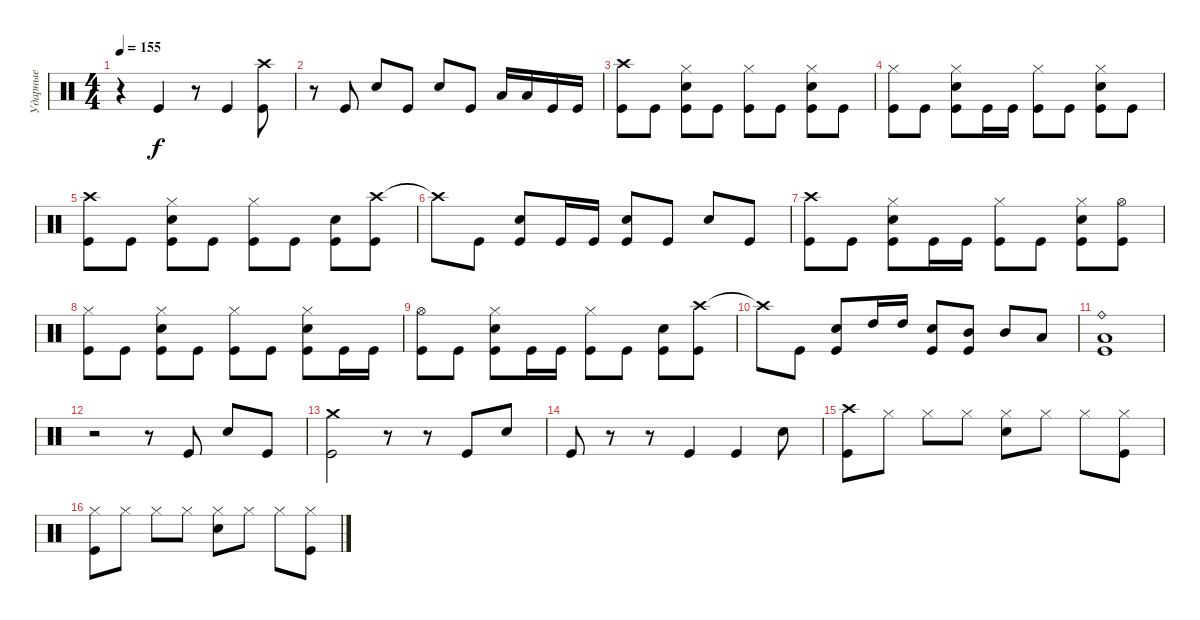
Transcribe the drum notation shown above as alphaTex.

\track ("Ударные" "Ударные") {instrument percussion}
\staff {score}
\articulation defaults
\ts (4 4)
\tempo 155
\clef neutral
\ks c
r.4{dy f} "Kick (hit)".4 r.8 "Kick (hit)".4 ("Crash high (hit)" "Kick (hit)").8 |
r.8 "Kick (hit)".8 "Electric Snare (hit)".8 "Kick (hit)".8 "Electric Snare (hit)".8 "Kick (hit)".8 "Low Tom (hit)".16 "Low Tom (hit)".16 "Kick (hit)".16 "Kick (hit)".16 |
("Crash high (hit)" "Kick (hit)").8 "Kick (hit)".8 ("Hi-Hat (closed)" "Electric Snare (hit)" "Kick (hit)").8 "Kick (hit)".8 ("Hi-Hat (closed)" "Kick (hit)").8 "Kick (hit)".8 ("Hi-Hat (closed)" "Electric Snare (hit)" "Kick (hit)").8 "Kick (hit)".8 |
("Hi-Hat (closed)" "Kick (hit)").8 "Kick (hit)".8 ("Hi-Hat (closed)" "Electric Snare (hit)" "Kick (hit)").8 "Kick (hit)".16 "Kick (hit)".16 ("Hi-Hat (closed)" "Kick (hit)").8 "Kick (hit)".8 ("Hi-Hat (closed)" "Electric Snare (hit)" "Kick (hit)").8 "Kick (hit)".8 |
("Crash high (hit)" "Kick (hit)").8 "Kick (hit)".8 ("Hi-Hat (closed)" "Electric Snare (hit)" "Kick (hit)").8 "Kick (hit)".8 ("Hi-Hat (closed)" "Kick (hit)").8 "Kick (hit)".8 ("Electric Snare (hit)" "Kick (hit)").8 ("Crash high (hit)" "Kick (hit)").8 |
"Crash high (hit)"{t}.8 "Kick (hit)".8 ("Electric Snare (hit)" "Kick (hit)").8 "Kick (hit)".16 "Kick (hit)".16 ("Electric Snare (hit)" "Kick (hit)").8 "Kick (hit)".8 "Electric Snare (hit)".8 "Kick (hit)".8 |
("Crash high (hit)" "Kick (hit)").8 "Kick (hit)".8 ("Hi-Hat (closed)" "Electric Snare (hit)" "Kick (hit)").8 "Kick (hit)".16 "Kick (hit)".16 ("Hi-Hat (closed)" "Kick (hit)").8 "Kick (hit)".8 ("Hi-Hat (closed)" "Electric Snare (hit)" "Kick (hit)").8 ("Hi-Hat (open)" "Kick (hit)").8 |
("Hi-Hat (closed)" "Kick (hit)").8 "Kick (hit)".8 ("Hi-Hat (closed)" "Electric Snare (hit)" "Kick (hit)").8 "Kick (hit)".8 ("Hi-Hat (closed)" "Kick (hit)").8 "Kick (hit)".8 ("Hi-Hat (closed)" "Electric Snare (hit)" "Kick (hit)").8 "Kick (hit)".16 "Kick (hit)".16 |
("Hi-Hat (open)" "Kick (hit)").8 "Kick (hit)".8 ("Hi-Hat (closed)" "Electric Snare (hit)" "Kick (hit)").8 "Kick (hit)".16 "Kick (hit)".16 ("Hi-Hat (closed)" "Kick (hit)").8 "Kick (hit)".8 ("Electric Snare (hit)" "Kick (hit)").8 ("Crash high (hit)" "Kick (hit)").8 |
"Crash high (hit)"{t}.8 "Kick (hit)".8 ("Electric Snare (hit)" "Kick (hit)").8 "High Tom (hit)".16 "High Tom (hit)".16 ("Electric Snare (hit)" "Kick (hit)").8 ("Mid Tom (hit)" "Kick (hit)").8 "Mid Tom (hit)".8 "Low Tom (hit)".8 |
("Ride (bell)" "Low Tom (hit)" "Kick (hit)").1 |
r.2 r.8 "Kick (hit)".8 "Electric Snare (hit)".8 "Kick (hit)".8 |
("Crash medium (hit)" "Kick (hit)").2 r.8 r.8 "Kick (hit)".8 "Electric Snare (hit)".8 |
"Kick (hit)".8 r.8 r.8 "Kick (hit)".4 "Kick (hit)".4 "Electric Snare (hit)".8 |
("Crash high (hit)" "Kick (hit)").8 "Hi-Hat (closed)".8 "Hi-Hat (closed)".8 "Hi-Hat (closed)".8 ("Hi-Hat (closed)" "Electric Snare (hit)").8 "Hi-Hat (closed)".8 "Hi-Hat (closed)".8 ("Hi-Hat (closed)" "Kick (hit)").8 |
("Hi-Hat (closed)" "Kick (hit)").8 "Hi-Hat (closed)".8 "Hi-Hat (closed)".8 "Hi-Hat (closed)".8 ("Hi-Hat (closed)" "Electric Snare (hit)").8 "Hi-Hat (closed)".8 "Hi-Hat (closed)".8 ("Hi-Hat (closed)" "Kick (hit)").8
